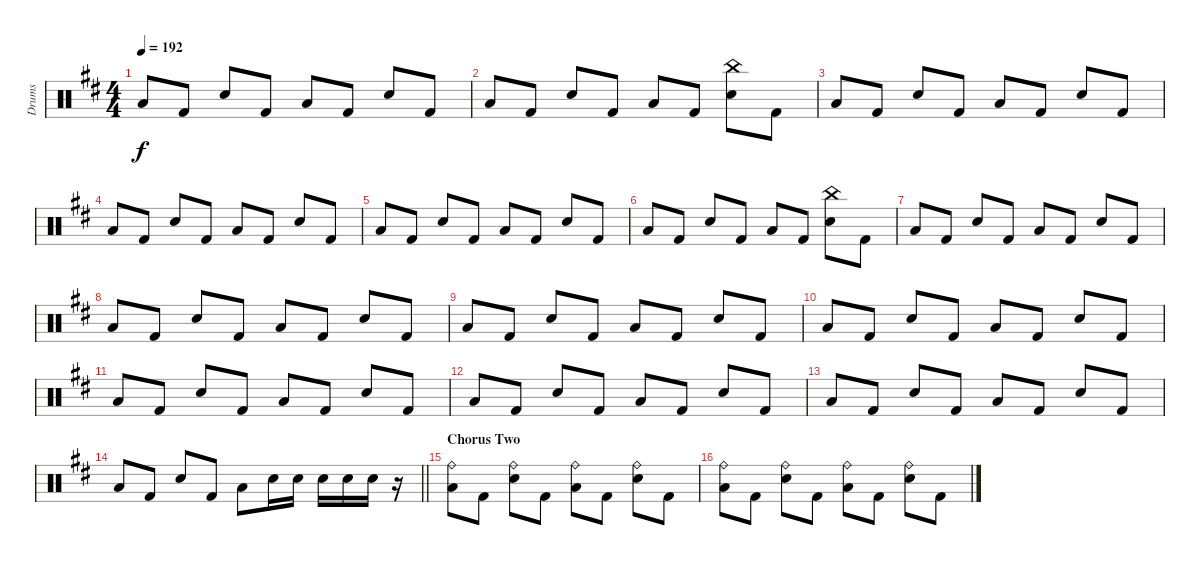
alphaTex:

\track ("Drums" "Drums") {instrument percussion}
\staff {score}
\articulation defaults
\ts (4 4)
\tempo 192
\clef neutral
\ks d "Low Tom (hit)".8{dy f} "Kick (hit) 2".8 "Snare (hit) 2".8 "Kick (hit) 2".8 "Low Tom (hit)".8 "Kick (hit) 2".8 "Snare (hit) 2".8 "Kick (hit) 2".8
|
"Low Tom (hit)".8 "Kick (hit) 2".8 "Snare (hit) 2".8 "Kick (hit) 2".8 "Low Tom (hit)".8 "Kick (hit) 2".8 ("China (hit)" "Snare (hit) 2").8 "Kick (hit) 2".8 |
"Low Tom (hit)".8 "Kick (hit) 2".8 "Snare (hit) 2".8 "Kick (hit) 2".8 "Low Tom (hit)".8 "Kick (hit) 2".8 "Snare (hit) 2".8 "Kick (hit) 2".8 |
"Low Tom (hit)".8 "Kick (hit) 2".8 "Snare (hit) 2".8 "Kick (hit) 2".8 "Low Tom (hit)".8 "Kick (hit) 2".8 "Snare (hit) 2".8 "Kick (hit) 2".8 |
"Low Tom (hit)".8 "Kick (hit) 2".8 "Snare (hit) 2".8 "Kick (hit) 2".8 "Low Tom (hit)".8 "Kick (hit) 2".8 "Snare (hit) 2".8 "Kick (hit) 2".8 |
"Low Tom (hit)".8 "Kick (hit) 2".8 "Snare (hit) 2".8 "Kick (hit) 2".8 "Low Tom (hit)".8 "Kick (hit) 2".8 ("China (hit)" "Snare (hit) 2").8 "Kick (hit) 2".8 |
"Low Tom (hit)".8 "Kick (hit) 2".8 "Snare (hit) 2".8 "Kick (hit) 2".8 "Low Tom (hit)".8 "Kick (hit) 2".8 "Snare (hit) 2".8 "Kick (hit) 2".8 |
"Low Tom (hit)".8 "Kick (hit) 2".8 "Snare (hit) 2".8 "Kick (hit) 2".8 "Low Tom (hit)".8 "Kick (hit) 2".8 "Snare (hit) 2".8 "Kick (hit) 2".8 |
"Low Tom (hit)".8 "Kick (hit) 2".8 "Snare (hit) 2".8 "Kick (hit) 2".8 "Low Tom (hit)".8 "Kick (hit) 2".8 "Snare (hit) 2".8 "Kick (hit) 2".8 |
"Low Tom (hit)".8 "Kick (hit) 2".8 "Snare (hit) 2".8 "Kick (hit) 2".8 "Low Tom (hit)".8 "Kick (hit) 2".8 "Snare (hit) 2".8 "Kick (hit) 2".8 |
"Low Tom (hit)".8 "Kick (hit) 2".8 "Snare (hit) 2".8 "Kick (hit) 2".8 "Low Tom (hit)".8 "Kick (hit) 2".8 "Snare (hit) 2".8 "Kick (hit) 2".8 |
"Low Tom (hit)".8 "Kick (hit) 2".8 "Snare (hit) 2".8 "Kick (hit) 2".8 "Low Tom (hit)".8 "Kick (hit) 2".8 "Snare (hit) 2".8 "Kick (hit) 2".8 |
"Low Tom (hit)".8 "Kick (hit) 2".8 "Snare (hit) 2".8 "Kick (hit) 2".8 "Low Tom (hit)".8 "Kick (hit) 2".8 "Snare (hit) 2".8 "Kick (hit) 2".8 |
\barLineRight lightlight "Low Tom (hit)".8 "Kick (hit) 2".8 "Snare (hit) 2".8 "Kick (hit) 2".8 "Low Tom (hit)".8 "Snare (hit) 2".16 "Snare (hit) 2".16 "Snare (hit) 2".16 "Snare (hit) 2".16 "Snare (hit) 2".16
r.16 |
\section ("" "Chorus Two")
("Ride (bell)" "Low Tom (hit)").8 "Kick (hit) 2".8 ("Ride (bell)" "Snare (hit) 2").8 "Kick (hit) 2".8 ("Ride (bell)" "Low Tom (hit)").8 "Kick (hit) 2".8 ("Ride (bell)" "Snare (hit) 2").8 "Kick (hit) 2".8 |
("Ride (bell)" "Low Tom (hit)").8 "Kick (hit) 2".8 ("Ride (bell)" "Snare (hit) 2").8 "Kick (hit) 2".8 ("Ride (bell)" "Low Tom (hit)").8 "Kick (hit) 2".8 ("Ride (bell)" "Snare (hit) 2").8 "Kick (hit) 2".8
